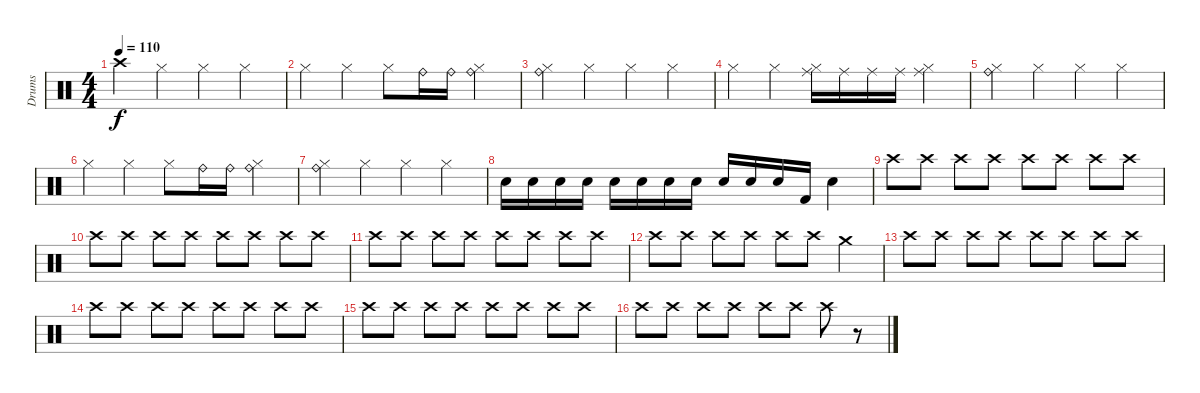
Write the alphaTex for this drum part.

\track ("Drums" "Drums") {instrument percussion}
\staff {score}
\articulation defaults
\ts (4 4)
\tempo 110
\clef neutral
\ks c "Crash high (hit)".4{dy f} "Hi-Hat (closed)".4 "Hi-Hat (closed)".4 "Hi-Hat (closed)".4
|
"Hi-Hat (closed)".4 "Hi-Hat (closed)".4 "Hi-Hat (closed)".8 "Ride (bell)".16 "Ride (bell)".16 ("Ride (bell)" "Hi-Hat (closed)").4 |
("Ride (bell)" "Hi-Hat (closed)").4 "Hi-Hat (closed)".4 "Hi-Hat (closed)".4 "Hi-Hat (closed)".4 |
"Hi-Hat (closed)".4 "Hi-Hat (closed)".4 ("Ride (middle)" "Hi-Hat (closed)").16 "Ride (middle)".16 "Ride (middle)".16 "Ride (middle)".16 ("Ride (middle)" "Hi-Hat (closed)").4 |
("Ride (bell)" "Hi-Hat (closed)").4 "Hi-Hat (closed)".4 "Hi-Hat (closed)".4 "Hi-Hat (closed)".4 |
"Hi-Hat (closed)".4 "Hi-Hat (closed)".4 "Hi-Hat (closed)".8 "Ride (bell)".16 "Ride (bell)".16 ("Hi-Hat (closed)" "Ride (bell)").4 |
("Ride (bell)" "Hi-Hat (closed)").4 "Hi-Hat (closed)".4 "Hi-Hat (closed)".4 "Hi-Hat (closed)".4 |
"Electric Snare (hit)".16 "Electric Snare (hit)".16 "Electric Snare (hit)".16 "Electric Snare (hit)".16 "Electric Snare (hit)".16 "Electric Snare (hit)".16 "Electric Snare (hit)".16 "Electric Snare (hit)".16 "Electric Snare (hit)".16 "Electric Snare (hit)".16 "Electric Snare (hit)".16 "Kick (hit) 2".16 "Electric Snare (hit)".4 |
"Crash high (hit)".8 "Crash high (hit)".8 "Crash high (hit)".8 "Crash high (hit)".8 "Crash high (hit)".8 "Crash high (hit)".8 "Crash high (hit)".8 "Crash high (hit)".8 |
"Crash high (hit)".8 "Crash high (hit)".8 "Crash high (hit)".8 "Crash high (hit)".8 "Crash high (hit)".8 "Crash high (hit)".8 "Crash high (hit)".8 "Crash high (hit)".8 |
"Crash high (hit)".8 "Crash high (hit)".8 "Crash high (hit)".8 "Crash high (hit)".8 "Crash high (hit)".8 "Crash high (hit)".8 "Crash high (hit)".8 "Crash high (hit)".8 |
"Crash high (hit)".8 "Crash high (hit)".8 "Crash high (hit)".8 "Crash high (hit)".8 "Crash high (hit)".8 "Crash high (hit)".8 "Crash medium (hit)".4 |
"Crash high (hit)".8 "Crash high (hit)".8 "Crash high (hit)".8 "Crash high (hit)".8 "Crash high (hit)".8 "Crash high (hit)".8 "Crash high (hit)".8 "Crash high (hit)".8 |
"Crash high (hit)".8 "Crash high (hit)".8 "Crash high (hit)".8 "Crash high (hit)".8 "Crash high (hit)".8 "Crash high (hit)".8 "Crash high (hit)".8 "Crash high (hit)".8 |
"Crash high (hit)".8 "Crash high (hit)".8 "Crash high (hit)".8 "Crash high (hit)".8 "Crash high (hit)".8 "Crash high (hit)".8 "Crash high (hit)".8 "Crash high (hit)".8 |
"Crash high (hit)".8 "Crash high (hit)".8 "Crash high (hit)".8 "Crash high (hit)".8 "Crash high (hit)".8 "Crash high (hit)".8 "Crash high (hit)".8 r.8
